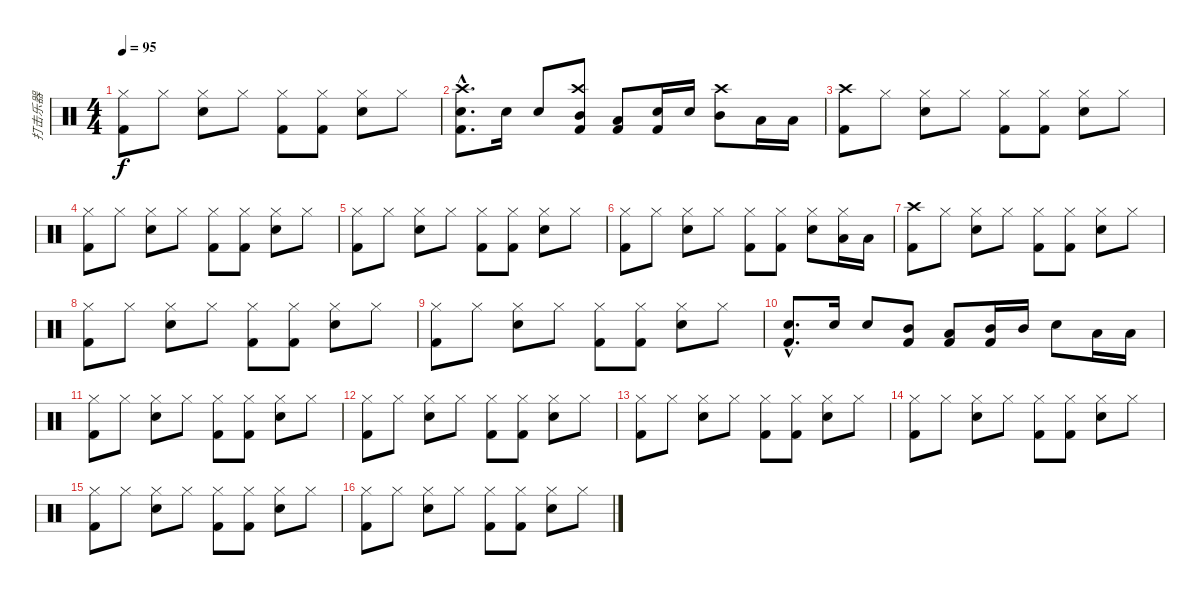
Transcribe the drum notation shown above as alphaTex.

\track ("打击乐器" "打击乐器") {instrument percussion}
\staff {score}
\articulation defaults
\ts (4 4)
\tempo 95
\clef neutral
\ks c
("Hi-Hat (closed)" "Kick (hit) 2").8{dy f} "Hi-Hat (closed)".8 ("Hi-Hat (closed)" "Electric Snare (hit)").8 "Hi-Hat (closed)".8 ("Hi-Hat (closed)" "Kick (hit) 2").8 ("Hi-Hat (closed)" "Kick (hit) 2").8 ("Hi-Hat (closed)" "Electric Snare (hit)").8 "Hi-Hat (closed)".8 |
("Crash high (hit)"{hac} "Electric Snare (hit)"{hac} "Kick (hit) 2"{hac}).8{d} "Electric Snare (hit)".16 "Electric Snare (hit)".8 ("Crash high (hit)" "Mid Tom (hit)" "Kick (hit) 2").8 ("Low Tom (hit)" "Kick (hit) 2").8 ("Electric Snare (hit)" "Kick (hit) 2").16 "Electric Snare (hit)".16 ("Crash high (hit)" "Mid Tom (hit)").8 "Low Tom (hit)".16 "Low Tom (hit)".16 |
("Crash high (hit)" "Kick (hit) 2").8 "Hi-Hat (closed)".8 ("Hi-Hat (closed)" "Electric Snare (hit)").8 "Hi-Hat (closed)".8 ("Hi-Hat (closed)" "Kick (hit) 2").8 ("Hi-Hat (closed)" "Kick (hit) 2").8 ("Hi-Hat (closed)" "Electric Snare (hit)").8 "Hi-Hat (closed)".8 |
("Hi-Hat (closed)" "Kick (hit) 2").8 "Hi-Hat (closed)".8 ("Hi-Hat (closed)" "Electric Snare (hit)").8 "Hi-Hat (closed)".8 ("Hi-Hat (closed)" "Kick (hit) 2").8 ("Hi-Hat (closed)" "Kick (hit) 2").8 ("Hi-Hat (closed)" "Electric Snare (hit)").8 "Hi-Hat (closed)".8 |
("Hi-Hat (closed)" "Kick (hit) 2").8 "Hi-Hat (closed)".8 ("Hi-Hat (closed)" "Electric Snare (hit)").8 "Hi-Hat (closed)".8 ("Hi-Hat (closed)" "Kick (hit) 2").8 ("Hi-Hat (closed)" "Kick (hit) 2").8 ("Hi-Hat (closed)" "Electric Snare (hit)").8 "Hi-Hat (closed)".8 |
("Hi-Hat (closed)" "Kick (hit) 2").8 "Hi-Hat (closed)".8 ("Hi-Hat (closed)" "Electric Snare (hit)").8 "Hi-Hat (closed)".8 ("Hi-Hat (closed)" "Kick (hit) 2").8 ("Hi-Hat (closed)" "Kick (hit) 2").8 ("Hi-Hat (closed)" "Electric Snare (hit)").8 ("Hi-Hat (closed)" "Low Tom (hit)").16 "Low Tom (hit)".16 |
("Crash high (hit)" "Kick (hit) 2").8 "Hi-Hat (closed)".8 ("Hi-Hat (closed)" "Electric Snare (hit)").8 "Hi-Hat (closed)".8 ("Hi-Hat (closed)" "Kick (hit) 2").8 ("Hi-Hat (closed)" "Kick (hit) 2").8 ("Hi-Hat (closed)" "Electric Snare (hit)").8 "Hi-Hat (closed)".8 |
("Hi-Hat (closed)" "Kick (hit) 2").8 "Hi-Hat (closed)".8 ("Hi-Hat (closed)" "Electric Snare (hit)").8 "Hi-Hat (closed)".8 ("Hi-Hat (closed)" "Kick (hit) 2").8 ("Hi-Hat (closed)" "Kick (hit) 2").8 ("Hi-Hat (closed)" "Electric Snare (hit)").8 "Hi-Hat (closed)".8 |
("Hi-Hat (closed)" "Kick (hit) 2").8 "Hi-Hat (closed)".8 ("Hi-Hat (closed)" "Electric Snare (hit)").8 "Hi-Hat (closed)".8 ("Hi-Hat (closed)" "Kick (hit) 2").8 ("Hi-Hat (closed)" "Kick (hit) 2").8 ("Hi-Hat (closed)" "Electric Snare (hit)").8 "Hi-Hat (closed)".8 |
("Electric Snare (hit)"{hac} "Kick (hit) 2"{hac}).8{d} "Electric Snare (hit)".16 "Electric Snare (hit)".8 ("Mid Tom (hit)" "Kick (hit) 2").8 ("Low Tom (hit)" "Kick (hit) 2").8 ("Mid Tom (hit)" "Kick (hit) 2").16 "Mid Tom (hit)".16 "Electric Snare (hit)".8 "Low Tom (hit)".16 "Low Tom (hit)".16 |
("Hi-Hat (closed)" "Kick (hit) 2").8 "Hi-Hat (closed)".8 ("Hi-Hat (closed)" "Electric Snare (hit)").8 "Hi-Hat (closed)".8 ("Hi-Hat (closed)" "Kick (hit) 2").8 ("Hi-Hat (closed)" "Kick (hit) 2").8 ("Hi-Hat (closed)" "Electric Snare (hit)").8 "Hi-Hat (closed)".8 |
("Hi-Hat (closed)" "Kick (hit) 2").8 "Hi-Hat (closed)".8 ("Hi-Hat (closed)" "Electric Snare (hit)").8 "Hi-Hat (closed)".8 ("Hi-Hat (closed)" "Kick (hit) 2").8 ("Hi-Hat (closed)" "Kick (hit) 2").8 ("Hi-Hat (closed)" "Electric Snare (hit)").8 "Hi-Hat (closed)".8 |
("Hi-Hat (closed)" "Kick (hit) 2").8 "Hi-Hat (closed)".8 ("Hi-Hat (closed)" "Electric Snare (hit)").8 "Hi-Hat (closed)".8 ("Hi-Hat (closed)" "Kick (hit) 2").8 ("Hi-Hat (closed)" "Kick (hit) 2").8 ("Hi-Hat (closed)" "Electric Snare (hit)").8 "Hi-Hat (closed)".8 |
("Hi-Hat (closed)" "Kick (hit) 2").8 "Hi-Hat (closed)".8 ("Hi-Hat (closed)" "Electric Snare (hit)").8 "Hi-Hat (closed)".8 ("Hi-Hat (closed)" "Kick (hit) 2").8 ("Hi-Hat (closed)" "Kick (hit) 2").8 ("Hi-Hat (closed)" "Electric Snare (hit)").8 "Hi-Hat (closed)".8 |
("Hi-Hat (closed)" "Kick (hit) 2").8 "Hi-Hat (closed)".8 ("Hi-Hat (closed)" "Electric Snare (hit)").8 "Hi-Hat (closed)".8 ("Hi-Hat (closed)" "Kick (hit) 2").8 ("Hi-Hat (closed)" "Kick (hit) 2").8 ("Hi-Hat (closed)" "Electric Snare (hit)").8 "Hi-Hat (closed)".8 |
("Hi-Hat (closed)" "Kick (hit) 2").8 "Hi-Hat (closed)".8 ("Hi-Hat (closed)" "Electric Snare (hit)").8 "Hi-Hat (closed)".8 ("Hi-Hat (closed)" "Kick (hit) 2").8 ("Hi-Hat (closed)" "Kick (hit) 2").8 ("Hi-Hat (closed)" "Electric Snare (hit)").8 "Hi-Hat (closed)".8
